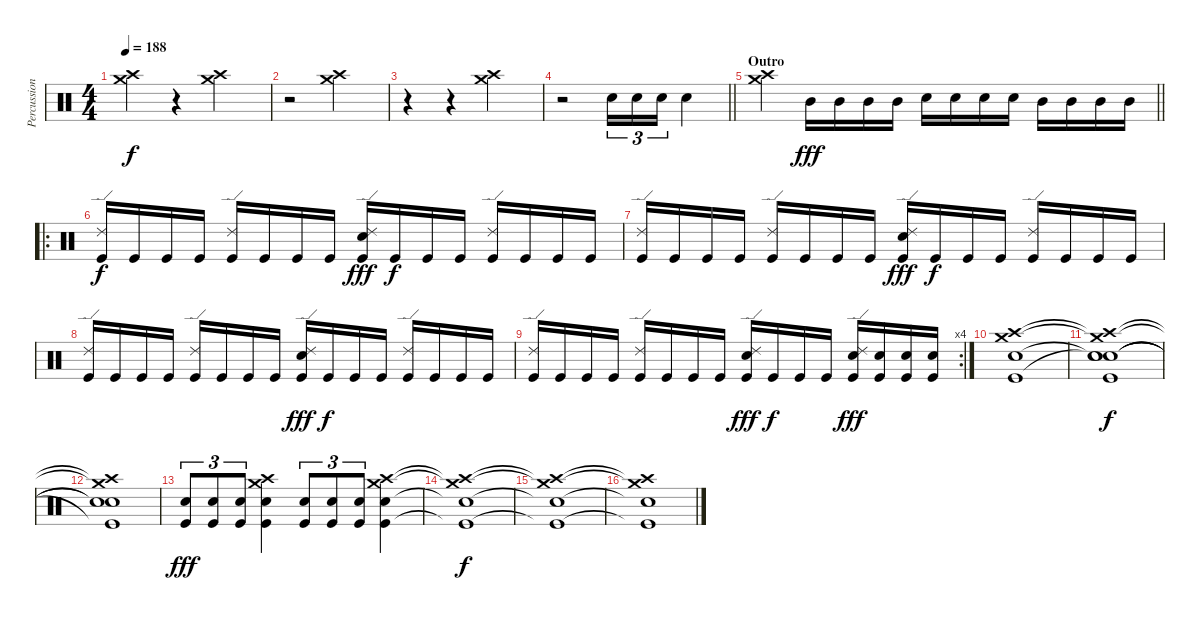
\track ("Percussion" "Percussion") {instrument percussion}
\staff {score}
\articulation defaults
\ts (4 4)
\tempo 188
\clef neutral
\ks c
("Crash high (hit)" "Crash medium (hit)").4{dy f} r.4 ("Crash high (hit)" "Crash medium (hit)").2 |
r.2 ("Crash high (hit)" "Crash medium (hit)").2 |
r.4 r.4 ("Crash high (hit)" "Crash medium (hit)").2 |
\barLineRight lightlight
r.2 "Snare (hit) 2".16{tu (3 2)} "Snare (hit) 2".16{tu (3 2)} "Snare (hit) 2".16{tu (3 2)} "Snare (hit) 2".4 |
\section ("" "Outro")
\barLineRight lightlight
("Crash high (hit)" "Crash medium (hit)").4 "Mid Tom (hit)".16{dy fff} "Mid Tom (hit)".16 "Mid Tom (hit)".16 "Mid Tom (hit)".16 "Snare (hit) 2".16 "Snare (hit) 2".16 "Snare (hit) 2".16 "Snare (hit) 2".16 "Mid Tom (hit)".16 "Mid Tom (hit)".16 "Mid Tom (hit)".16 "Mid Tom (hit)".16 |
\ro
("Ride (edge) 2" "Kick (hit)").16{dy f} "Kick (hit)".16 "Kick (hit)".16 "Kick (hit)".16 ("Ride (edge) 2" "Kick (hit)").16 "Kick (hit)".16 "Kick (hit)".16 "Kick (hit)".16 ("Ride (edge) 2" "Snare (hit) 2" "Kick (hit)").16{dy fff} "Kick (hit)".16{dy f} "Kick (hit)".16 "Kick (hit)".16 ("Ride (edge) 2" "Kick (hit)").16 "Kick (hit)".16 "Kick (hit)".16 "Kick (hit)".16 |
("Ride (edge) 2" "Kick (hit)").16 "Kick (hit)".16 "Kick (hit)".16 "Kick (hit)".16 ("Ride (edge) 2" "Kick (hit)").16 "Kick (hit)".16 "Kick (hit)".16 "Kick (hit)".16 ("Ride (edge) 2" "Snare (hit) 2" "Kick (hit)").16{dy fff} "Kick (hit)".16{dy f} "Kick (hit)".16 "Kick (hit)".16 ("Ride (edge) 2" "Kick (hit)").16 "Kick (hit)".16 "Kick (hit)".16 "Kick (hit)".16 |
("Ride (edge) 2" "Kick (hit)").16 "Kick (hit)".16 "Kick (hit)".16 "Kick (hit)".16 ("Ride (edge) 2" "Kick (hit)").16 "Kick (hit)".16 "Kick (hit)".16 "Kick (hit)".16 ("Ride (edge) 2" "Snare (hit) 2" "Kick (hit)").16{dy fff} "Kick (hit)".16{dy f} "Kick (hit)".16 "Kick (hit)".16 ("Ride (edge) 2" "Kick (hit)").16 "Kick (hit)".16 "Kick (hit)".16 "Kick (hit)".16 |
\rc 4
("Ride (edge) 2" "Kick (hit)").16 "Kick (hit)".16 "Kick (hit)".16 "Kick (hit)".16 ("Ride (edge) 2" "Kick (hit)").16 "Kick (hit)".16 "Kick (hit)".16 "Kick (hit)".16 ("Ride (edge) 2" "Snare (hit) 2" "Kick (hit)").16{dy fff} "Kick (hit)".16{dy f} "Kick (hit)".16 "Kick (hit)".16 ("Ride (edge) 2" "Snare (hit) 2" "Kick (hit)").16{dy fff} ("Snare (hit) 2" "Kick (hit)").16 ("Snare (hit) 2" "Kick (hit)").16 ("Snare (hit) 2" "Kick (hit)").16 |
("Crash medium (hit)" "Crash high (hit)" "Snare (hit) 2" "Kick (hit)").1 |
("Crash medium (hit)"{t} "Crash high (hit)"{t} "Snare (hit)"{t} "Snare (hit)"{t} "Snare (hit) 2" "Kick (hit)").1{dy f} |
("Crash medium (hit)"{t} "Crash high (hit)"{t} "Snare (hit)"{t} "Snare (hit) 2"{t} "Kick (hit)"{t}).1 |
("Snare (hit) 2" "Kick (hit)").8{tu (3 2) dy fff} ("Snare (hit) 2" "Kick (hit)").8{tu (3 2)} ("Snare (hit) 2" "Kick (hit)").8{tu (3 2)} ("Crash medium (hit)" "Crash high (hit)" "Snare (hit) 2" "Kick (hit)").4 ("Snare (hit) 2" "Kick (hit)").8{tu (3 2)} ("Snare (hit) 2" "Kick (hit)").8{tu (3 2)} ("Snare (hit) 2" "Kick (hit)").8{tu (3 2)} ("Crash medium (hit)" "Crash high (hit)" "Snare (hit) 2" "Kick (hit)").4 |
("Crash medium (hit)"{t} "Crash high (hit)"{t} "Snare (hit) 2"{t} "Kick (hit)"{t}).1{dy f} |
("Crash medium (hit)"{t} "Crash high (hit)"{t} "Snare (hit) 2"{t} "Kick (hit)"{t}).1 |
("Crash medium (hit)"{t} "Crash high (hit)"{t} "Snare (hit) 2"{t} "Kick (hit)"{t}).1
